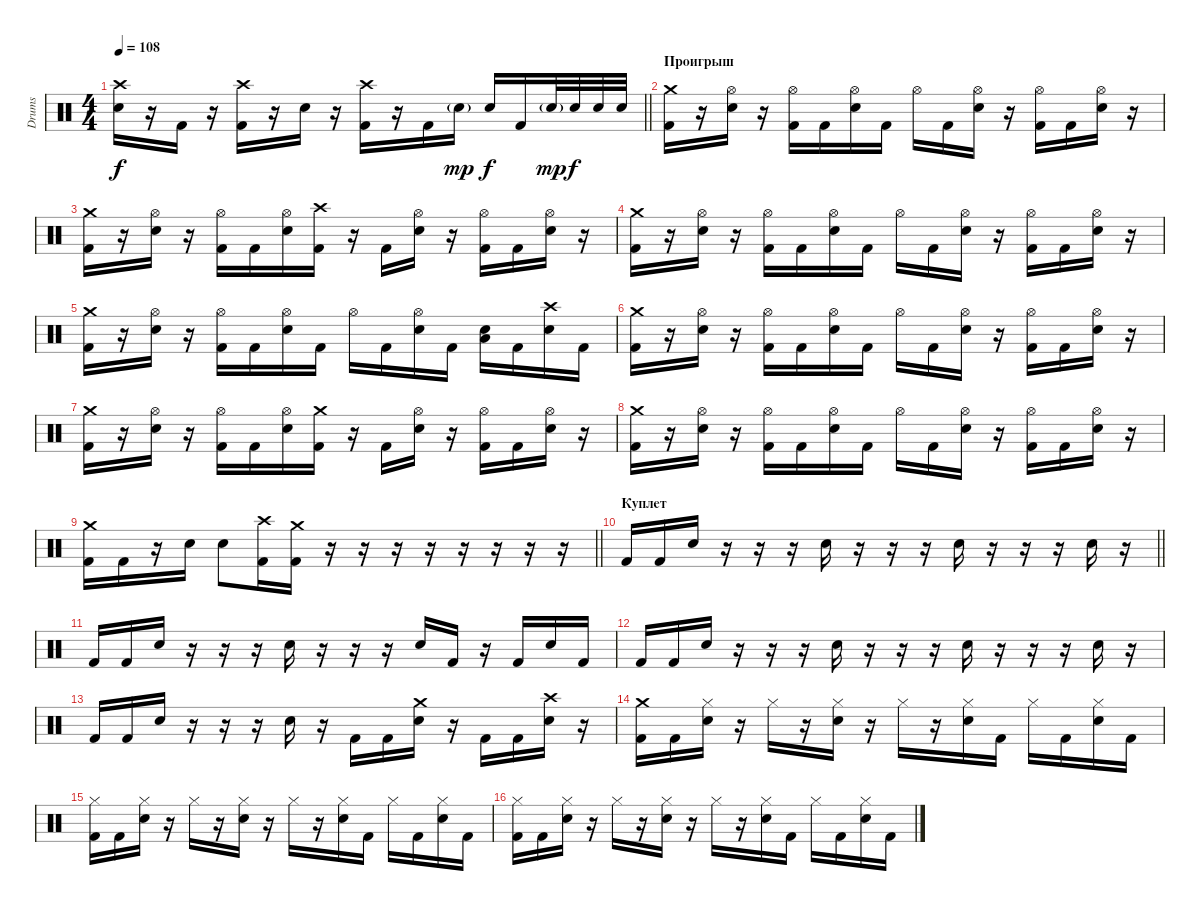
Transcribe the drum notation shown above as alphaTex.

\track ("Drums" "Drums") {instrument percussion}
\staff {score}
\articulation defaults
\ts (4 4)
\tempo 108
\clef neutral
\barLineRight lightlight
\ks c
("Crash high (hit)" "Electric Snare (hit)").16{dy f} r.16 "Kick (hit) 2".16 r.16 ("Crash high (hit)" "Kick (hit) 2").16 r.16 "Electric Snare (hit)".16 r.16 ("Crash high (hit)" "Kick (hit) 2").16 r.16 "Kick (hit) 2".16 "Electric Snare (hit)"{g}.16{dy mp} "Electric Snare (hit)".16{dy f} "Kick (hit) 2".16 "Electric Snare (hit)"{g}.32{dy mp} "Electric Snare (hit)".32{dy f} "Electric Snare (hit)".32 "Electric Snare (hit)".32 |
\section ("" "Проигрыш")
("Crash medium (hit)" "Kick (hit) 2").16 r.16 ("Hi-Hat (open)" "Electric Snare (hit)").16 r.16 ("Hi-Hat (open)" "Kick (hit) 2").16 "Kick (hit) 2".16 ("Hi-Hat (open)" "Electric Snare (hit)").16 "Kick (hit) 2".16 "Hi-Hat (open)".16 "Kick (hit) 2".16 ("Hi-Hat (open)" "Electric Snare (hit)").16 r.16 ("Hi-Hat (open)" "Kick (hit) 2").16 "Kick (hit) 2".16 ("Hi-Hat (open)" "Electric Snare (hit)").16 r.16 |
("Crash medium (hit)" "Kick (hit) 2").16 r.16 ("Hi-Hat (open)" "Electric Snare (hit)").16 r.16 ("Hi-Hat (open)" "Kick (hit) 2").16 "Kick (hit) 2".16 ("Hi-Hat (open)" "Electric Snare (hit)").16 ("Crash high (hit)" "Kick (hit) 2").16 r.16 "Kick (hit) 2".16 ("Hi-Hat (open)" "Electric Snare (hit)").16 r.16 ("Hi-Hat (open)" "Kick (hit) 2").16 "Kick (hit) 2".16 ("Hi-Hat (open)" "Electric Snare (hit)").16 r.16 |
("Crash medium (hit)" "Kick (hit) 2").16 r.16 ("Hi-Hat (open)" "Electric Snare (hit)").16 r.16 ("Hi-Hat (open)" "Kick (hit) 2").16 "Kick (hit) 2".16 ("Hi-Hat (open)" "Electric Snare (hit)").16 "Kick (hit) 2".16 "Hi-Hat (open)".16 "Kick (hit) 2".16 ("Hi-Hat (open)" "Electric Snare (hit)").16 r.16 ("Hi-Hat (open)" "Kick (hit) 2").16 "Kick (hit) 2".16 ("Hi-Hat (open)" "Electric Snare (hit)").16 r.16 |
("Crash medium (hit)" "Kick (hit) 2").16 r.16 ("Hi-Hat (open)" "Electric Snare (hit)").16 r.16 ("Hi-Hat (open)" "Kick (hit) 2").16 "Kick (hit) 2".16 ("Hi-Hat (open)" "Electric Snare (hit)").16 "Kick (hit) 2".16 "Hi-Hat (open)".16 "Kick (hit) 2".16 ("Hi-Hat (open)" "Electric Snare (hit)").16 "Kick (hit) 2".16 ("Low Floor Tom (hit)" "Electric Snare (hit)").16 "Kick (hit) 2".16 ("Crash high (hit)" "Electric Snare (hit)").16 "Kick (hit) 2".16 |
("Crash medium (hit)" "Kick (hit) 2").16 r.16 ("Hi-Hat (open)" "Electric Snare (hit)").16 r.16 ("Hi-Hat (open)" "Kick (hit) 2").16 "Kick (hit) 2".16 ("Hi-Hat (open)" "Electric Snare (hit)").16 "Kick (hit) 2".16 "Hi-Hat (open)".16 "Kick (hit) 2".16 ("Hi-Hat (open)" "Electric Snare (hit)").16 r.16 ("Hi-Hat (open)" "Kick (hit) 2").16 "Kick (hit) 2".16 ("Hi-Hat (open)" "Electric Snare (hit)").16 r.16 |
("Crash medium (hit)" "Kick (hit) 2").16 r.16 ("Hi-Hat (open)" "Electric Snare (hit)").16 r.16 ("Hi-Hat (open)" "Kick (hit) 2").16 "Kick (hit) 2".16 ("Hi-Hat (open)" "Electric Snare (hit)").16 ("Crash medium (hit)" "Kick (hit) 2").16 r.16 "Kick (hit) 2".16 ("Hi-Hat (open)" "Electric Snare (hit)").16 r.16 ("Hi-Hat (open)" "Kick (hit) 2").16 "Kick (hit) 2".16 ("Hi-Hat (open)" "Electric Snare (hit)").16 r.16 |
("Crash medium (hit)" "Kick (hit) 2").16 r.16 ("Hi-Hat (open)" "Electric Snare (hit)").16 r.16 ("Hi-Hat (open)" "Kick (hit) 2").16 "Kick (hit) 2".16 ("Hi-Hat (open)" "Electric Snare (hit)").16 "Kick (hit) 2".16 "Hi-Hat (open)".16 "Kick (hit) 2".16 ("Hi-Hat (open)" "Electric Snare (hit)").16 r.16 ("Hi-Hat (open)" "Kick (hit) 2").16 "Kick (hit) 2".16 ("Hi-Hat (open)" "Electric Snare (hit)").16 r.16 |
\barLineRight lightlight
("Crash medium (hit)" "Kick (hit) 2").16 "Kick (hit) 2".16 r.16 "Electric Snare (hit)".16 "Electric Snare (hit)".8 ("Crash high (hit)" "Kick (hit) 2").16 ("Crash medium (hit)" "Kick (hit) 2").16 r.16 r.16 r.16 r.16 r.16 r.16 r.16 r.16 |
\section ("" "Куплет")
\barLineRight lightlight "Kick (hit) 2".16 "Kick (hit) 2".16 "Electric Snare (hit)".16
r.16 r.16 r.16 "Electric Snare (hit)".16 r.16 r.16 r.16 "Electric Snare (hit)".16 r.16 r.16 r.16 "Electric Snare (hit)".16 r.16 |
"Kick (hit) 2".16 "Kick (hit) 2".16 "Electric Snare (hit)".16 r.16 r.16 r.16 "Electric Snare (hit)".16 r.16 r.16 r.16 "Electric Snare (hit)".16 "Kick (hit) 2".16 r.16 "Kick (hit) 2".16 "Electric Snare (hit)".16 "Kick (hit) 2".16 |
"Kick (hit) 2".16 "Kick (hit) 2".16 "Electric Snare (hit)".16 r.16 r.16 r.16 "Electric Snare (hit)".16 r.16 r.16 r.16 "Electric Snare (hit)".16 r.16 r.16 r.16 "Electric Snare (hit)".16 r.16 |
"Kick (hit) 2".16 "Kick (hit) 2".16 "Electric Snare (hit)".16 r.16 r.16 r.16 "Electric Snare (hit)".16 r.16 "Kick (hit) 2".16 "Kick (hit) 2".16 ("Crash medium (hit)" "Electric Snare (hit)").16 r.16 "Kick (hit) 2".16 "Kick (hit) 2".16 ("Crash high (hit)" "Electric Snare (hit)").16 r.16 |
("Crash medium (hit)" "Kick (hit) 2").16 "Kick (hit) 2".16 ("Hi-Hat (closed)" "Electric Snare (hit)").16 r.16 "Hi-Hat (closed)".16 r.16 ("Hi-Hat (closed)" "Electric Snare (hit)").16 r.16 "Hi-Hat (closed)".16 r.16 ("Hi-Hat (closed)" "Electric Snare (hit)").16 "Kick (hit) 2".16 "Hi-Hat (closed)".16 "Kick (hit) 2".16 ("Hi-Hat (closed)" "Electric Snare (hit)").16 "Kick (hit) 2".16 |
("Hi-Hat (closed)" "Kick (hit) 2").16 "Kick (hit) 2".16 ("Hi-Hat (closed)" "Electric Snare (hit)").16 r.16 "Hi-Hat (closed)".16 r.16 ("Hi-Hat (closed)" "Electric Snare (hit)").16 r.16 "Hi-Hat (closed)".16 r.16 ("Hi-Hat (closed)" "Electric Snare (hit)").16 "Kick (hit) 2".16 "Hi-Hat (closed)".16 "Kick (hit) 2".16 ("Hi-Hat (closed)" "Electric Snare (hit)").16 "Kick (hit) 2".16 |
("Hi-Hat (closed)" "Kick (hit) 2").16 "Kick (hit) 2".16 ("Hi-Hat (closed)" "Electric Snare (hit)").16 r.16 "Hi-Hat (closed)".16 r.16 ("Hi-Hat (closed)" "Electric Snare (hit)").16 r.16 "Hi-Hat (closed)".16 r.16 ("Hi-Hat (closed)" "Electric Snare (hit)").16 "Kick (hit) 2".16 "Hi-Hat (closed)".16 "Kick (hit) 2".16 ("Hi-Hat (closed)" "Electric Snare (hit)").16 "Kick (hit) 2".16
